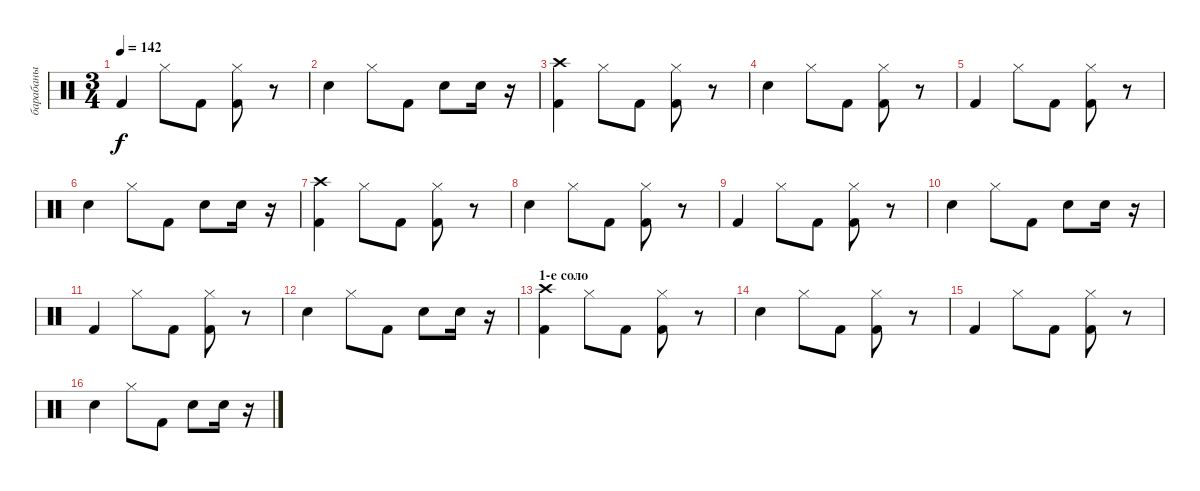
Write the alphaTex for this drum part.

\track ("барабаны" "барабаны") {instrument percussion}
\staff {score}
\articulation defaults
\ts (3 4)
\tempo 142
\clef neutral
\ks c "Kick (hit) 2".4{dy f} "Hi-Hat (closed)".8 "Kick (hit) 2".8
("Hi-Hat (closed)" "Kick (hit) 2").8 r.8 |
"Snare (hit) 2".4 "Hi-Hat (closed)".8 "Kick (hit) 2".8 "Snare (hit) 2".8 "Snare (hit) 2".16 r.16 |
("Crash high (hit)" "Kick (hit) 2").4 "Hi-Hat (closed)".8 "Kick (hit) 2".8 ("Hi-Hat (closed)" "Kick (hit) 2").8 r.8 |
"Snare (hit) 2".4 "Hi-Hat (closed)".8 "Kick (hit) 2".8 ("Hi-Hat (closed)" "Kick (hit) 2").8 r.8 |
"Kick (hit) 2".4 "Hi-Hat (closed)".8 "Kick (hit) 2".8 ("Hi-Hat (closed)" "Kick (hit) 2").8 r.8 |
"Snare (hit) 2".4 "Hi-Hat (closed)".8 "Kick (hit) 2".8 "Snare (hit) 2".8 "Snare (hit) 2".16 r.16 |
("Crash high (hit)" "Kick (hit) 2").4 "Hi-Hat (closed)".8 "Kick (hit) 2".8 ("Hi-Hat (closed)" "Kick (hit) 2").8 r.8 |
"Snare (hit) 2".4 "Hi-Hat (closed)".8 "Kick (hit) 2".8 ("Hi-Hat (closed)" "Kick (hit) 2").8 r.8 |
"Kick (hit) 2".4 "Hi-Hat (closed)".8 "Kick (hit) 2".8 ("Hi-Hat (closed)" "Kick (hit) 2").8 r.8 |
"Snare (hit) 2".4 "Hi-Hat (closed)".8 "Kick (hit) 2".8 "Snare (hit) 2".8 "Snare (hit) 2".16 r.16 |
"Kick (hit) 2".4 "Hi-Hat (closed)".8 "Kick (hit) 2".8 ("Hi-Hat (closed)" "Kick (hit) 2").8 r.8 |
"Snare (hit) 2".4 "Hi-Hat (closed)".8 "Kick (hit) 2".8 "Snare (hit) 2".8 "Snare (hit) 2".16 r.16 |
\section ("" "1-е соло")
("Crash high (hit)" "Kick (hit) 2").4 "Hi-Hat (closed)".8 "Kick (hit) 2".8 ("Hi-Hat (closed)" "Kick (hit) 2").8 r.8 |
"Snare (hit) 2".4 "Hi-Hat (closed)".8 "Kick (hit) 2".8 ("Hi-Hat (closed)" "Kick (hit) 2").8 r.8 |
"Kick (hit) 2".4 "Hi-Hat (closed)".8 "Kick (hit) 2".8 ("Hi-Hat (closed)" "Kick (hit) 2").8 r.8 |
"Snare (hit) 2".4 "Hi-Hat (closed)".8 "Kick (hit) 2".8 "Snare (hit) 2".8 "Snare (hit) 2".16 r.16
